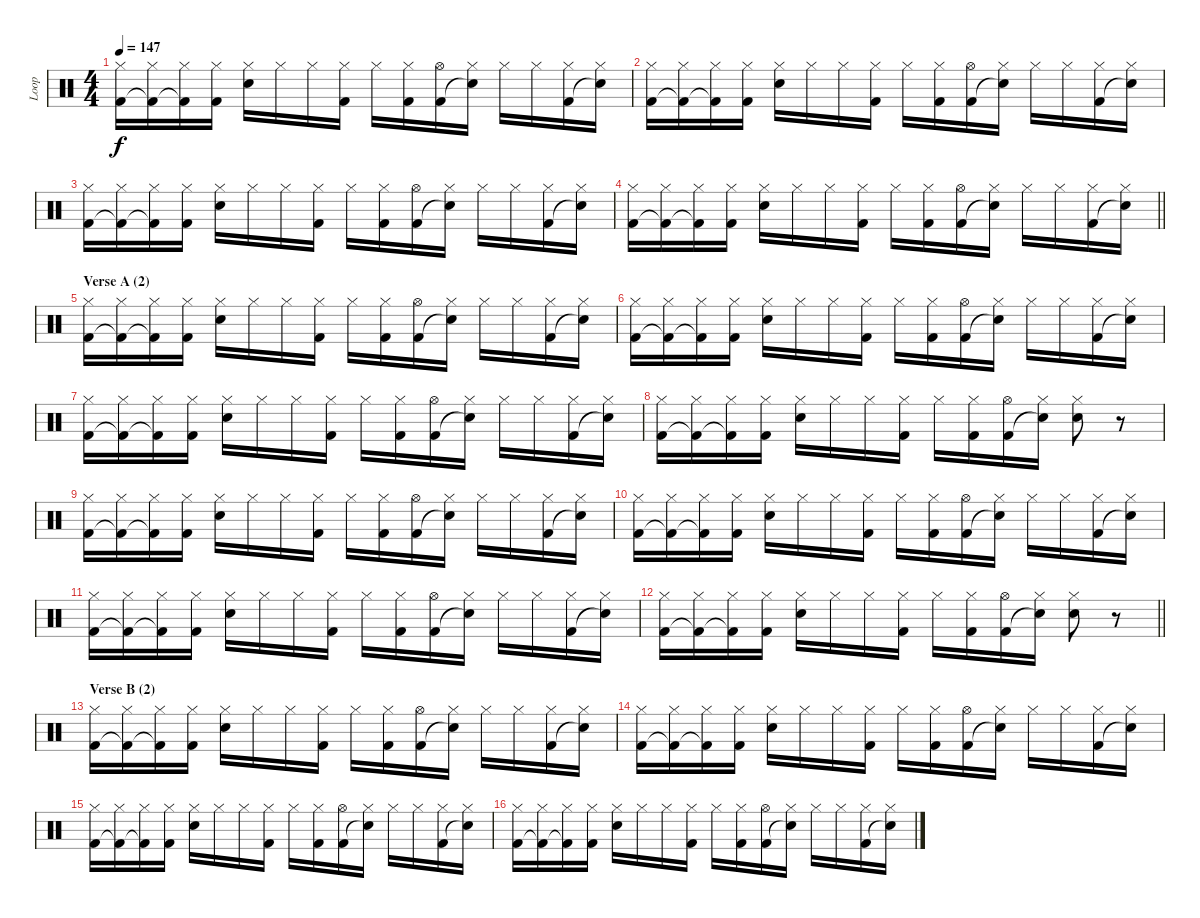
\track ("Loop" "Loop") {instrument percussion}
\staff {score}
\articulation defaults
\ts (4 4)
\tempo 147
\clef neutral
\ks aminor
("Hi-Hat (closed)" "Kick (hit) 2").16{dy f} ("Hi-Hat (closed)" "Kick (hit) 2"{t}).16 ("Hi-Hat (closed)" "Kick (hit) 2"{t}).16 ("Hi-Hat (closed)" "Kick (hit) 2").16 ("Hi-Hat (closed)" "Electric Snare (hit)").16 "Hi-Hat (closed)".16 "Hi-Hat (closed)".16 ("Hi-Hat (closed)" "Kick (hit) 2").16 "Hi-Hat (closed)".16 ("Hi-Hat (closed)" "Kick (hit) 2").16 ("Hi-Hat (open)" "Kick (hit) 2").16 ("Hi-Hat (closed)" "Snare (hit)"{t}).16 "Hi-Hat (closed)".16 "Hi-Hat (closed)".16 ("Hi-Hat (closed)" "Kick (hit) 2").16 ("Hi-Hat (closed)" "Snare (hit)"{t}).16 |
("Hi-Hat (closed)" "Kick (hit) 2").16 ("Hi-Hat (closed)" "Kick (hit) 2"{t}).16 ("Hi-Hat (closed)" "Kick (hit) 2"{t}).16 ("Hi-Hat (closed)" "Kick (hit) 2").16 ("Hi-Hat (closed)" "Electric Snare (hit)").16 "Hi-Hat (closed)".16 "Hi-Hat (closed)".16 ("Hi-Hat (closed)" "Kick (hit) 2").16 "Hi-Hat (closed)".16 ("Hi-Hat (closed)" "Kick (hit) 2").16 ("Hi-Hat (open)" "Kick (hit) 2").16 ("Hi-Hat (closed)" "Snare (hit)"{t}).16 "Hi-Hat (closed)".16 "Hi-Hat (closed)".16 ("Hi-Hat (closed)" "Kick (hit) 2").16 ("Hi-Hat (closed)" "Snare (hit)"{t}).16 |
("Hi-Hat (closed)" "Kick (hit) 2").16 ("Hi-Hat (closed)" "Kick (hit) 2"{t}).16 ("Hi-Hat (closed)" "Kick (hit) 2"{t}).16 ("Hi-Hat (closed)" "Kick (hit) 2").16 ("Hi-Hat (closed)" "Electric Snare (hit)").16 "Hi-Hat (closed)".16 "Hi-Hat (closed)".16 ("Hi-Hat (closed)" "Kick (hit) 2").16 "Hi-Hat (closed)".16 ("Hi-Hat (closed)" "Kick (hit) 2").16 ("Hi-Hat (open)" "Kick (hit) 2").16 ("Hi-Hat (closed)" "Snare (hit)"{t}).16 "Hi-Hat (closed)".16 "Hi-Hat (closed)".16 ("Hi-Hat (closed)" "Kick (hit) 2").16 ("Hi-Hat (closed)" "Snare (hit)"{t}).16 |
\barLineRight lightlight
("Hi-Hat (closed)" "Kick (hit) 2").16 ("Hi-Hat (closed)" "Kick (hit) 2"{t}).16 ("Hi-Hat (closed)" "Kick (hit) 2"{t}).16 ("Hi-Hat (closed)" "Kick (hit) 2").16 ("Hi-Hat (closed)" "Electric Snare (hit)").16 "Hi-Hat (closed)".16 "Hi-Hat (closed)".16 ("Hi-Hat (closed)" "Kick (hit) 2").16 "Hi-Hat (closed)".16 ("Hi-Hat (closed)" "Kick (hit) 2").16 ("Hi-Hat (open)" "Kick (hit) 2").16 ("Hi-Hat (closed)" "Snare (hit)"{t}).16 "Hi-Hat (closed)".16 "Hi-Hat (closed)".16 ("Hi-Hat (closed)" "Kick (hit) 2").16 ("Hi-Hat (closed)" "Snare (hit)"{t}).16 |
\section ("" "Verse A (2)")
("Hi-Hat (closed)" "Kick (hit) 2").16 ("Hi-Hat (closed)" "Kick (hit) 2"{t}).16 ("Hi-Hat (closed)" "Kick (hit) 2"{t}).16 ("Hi-Hat (closed)" "Kick (hit) 2").16 ("Hi-Hat (closed)" "Electric Snare (hit)").16 "Hi-Hat (closed)".16 "Hi-Hat (closed)".16 ("Hi-Hat (closed)" "Kick (hit) 2").16 "Hi-Hat (closed)".16 ("Hi-Hat (closed)" "Kick (hit) 2").16 ("Hi-Hat (open)" "Kick (hit) 2").16 ("Hi-Hat (closed)" "Snare (hit)"{t}).16 "Hi-Hat (closed)".16 "Hi-Hat (closed)".16 ("Hi-Hat (closed)" "Kick (hit) 2").16 ("Hi-Hat (closed)" "Snare (hit)"{t}).16 |
("Hi-Hat (closed)" "Kick (hit) 2").16 ("Hi-Hat (closed)" "Kick (hit) 2"{t}).16 ("Hi-Hat (closed)" "Kick (hit) 2"{t}).16 ("Hi-Hat (closed)" "Kick (hit) 2").16 ("Hi-Hat (closed)" "Electric Snare (hit)").16 "Hi-Hat (closed)".16 "Hi-Hat (closed)".16 ("Hi-Hat (closed)" "Kick (hit) 2").16 "Hi-Hat (closed)".16 ("Hi-Hat (closed)" "Kick (hit) 2").16 ("Hi-Hat (open)" "Kick (hit) 2").16 ("Hi-Hat (closed)" "Snare (hit)"{t}).16 "Hi-Hat (closed)".16 "Hi-Hat (closed)".16 ("Hi-Hat (closed)" "Kick (hit) 2").16 ("Hi-Hat (closed)" "Snare (hit)"{t}).16 |
("Hi-Hat (closed)" "Kick (hit) 2").16 ("Hi-Hat (closed)" "Kick (hit) 2"{t}).16 ("Hi-Hat (closed)" "Kick (hit) 2"{t}).16 ("Hi-Hat (closed)" "Kick (hit) 2").16 ("Hi-Hat (closed)" "Electric Snare (hit)").16 "Hi-Hat (closed)".16 "Hi-Hat (closed)".16 ("Hi-Hat (closed)" "Kick (hit) 2").16 "Hi-Hat (closed)".16 ("Hi-Hat (closed)" "Kick (hit) 2").16 ("Hi-Hat (open)" "Kick (hit) 2").16 ("Hi-Hat (closed)" "Snare (hit)"{t}).16 "Hi-Hat (closed)".16 "Hi-Hat (closed)".16 ("Hi-Hat (closed)" "Kick (hit) 2").16 ("Hi-Hat (closed)" "Snare (hit)"{t}).16 |
("Hi-Hat (closed)" "Kick (hit) 2").16 ("Hi-Hat (closed)" "Kick (hit) 2"{t}).16 ("Hi-Hat (closed)" "Kick (hit) 2"{t}).16 ("Hi-Hat (closed)" "Kick (hit) 2").16 ("Hi-Hat (closed)" "Electric Snare (hit)").16 "Hi-Hat (closed)".16 "Hi-Hat (closed)".16 ("Hi-Hat (closed)" "Kick (hit) 2").16 "Hi-Hat (closed)".16 ("Hi-Hat (closed)" "Kick (hit) 2").16 ("Hi-Hat (open)" "Kick (hit) 2").16 ("Hi-Hat (closed)" "Snare (hit)"{t}).16 ("Hi-Hat (closed)" "Electric Snare (hit)").8 r.8 |
("Hi-Hat (closed)" "Kick (hit) 2").16 ("Hi-Hat (closed)" "Kick (hit) 2"{t}).16 ("Hi-Hat (closed)" "Kick (hit) 2"{t}).16 ("Hi-Hat (closed)" "Kick (hit) 2").16 ("Hi-Hat (closed)" "Electric Snare (hit)").16 "Hi-Hat (closed)".16 "Hi-Hat (closed)".16 ("Hi-Hat (closed)" "Kick (hit) 2").16 "Hi-Hat (closed)".16 ("Hi-Hat (closed)" "Kick (hit) 2").16 ("Hi-Hat (open)" "Kick (hit) 2").16 ("Hi-Hat (closed)" "Snare (hit)"{t}).16 "Hi-Hat (closed)".16 "Hi-Hat (closed)".16 ("Hi-Hat (closed)" "Kick (hit) 2").16 ("Hi-Hat (closed)" "Snare (hit)"{t}).16 |
("Hi-Hat (closed)" "Kick (hit) 2").16 ("Hi-Hat (closed)" "Kick (hit) 2"{t}).16 ("Hi-Hat (closed)" "Kick (hit) 2"{t}).16 ("Hi-Hat (closed)" "Kick (hit) 2").16 ("Hi-Hat (closed)" "Electric Snare (hit)").16 "Hi-Hat (closed)".16 "Hi-Hat (closed)".16 ("Hi-Hat (closed)" "Kick (hit) 2").16 "Hi-Hat (closed)".16 ("Hi-Hat (closed)" "Kick (hit) 2").16 ("Hi-Hat (open)" "Kick (hit) 2").16 ("Hi-Hat (closed)" "Snare (hit)"{t}).16 "Hi-Hat (closed)".16 "Hi-Hat (closed)".16 ("Hi-Hat (closed)" "Kick (hit) 2").16 ("Hi-Hat (closed)" "Snare (hit)"{t}).16 |
("Hi-Hat (closed)" "Kick (hit) 2").16 ("Hi-Hat (closed)" "Kick (hit) 2"{t}).16 ("Hi-Hat (closed)" "Kick (hit) 2"{t}).16 ("Hi-Hat (closed)" "Kick (hit) 2").16 ("Hi-Hat (closed)" "Electric Snare (hit)").16 "Hi-Hat (closed)".16 "Hi-Hat (closed)".16 ("Hi-Hat (closed)" "Kick (hit) 2").16 "Hi-Hat (closed)".16 ("Hi-Hat (closed)" "Kick (hit) 2").16 ("Hi-Hat (open)" "Kick (hit) 2").16 ("Hi-Hat (closed)" "Snare (hit)"{t}).16 "Hi-Hat (closed)".16 "Hi-Hat (closed)".16 ("Hi-Hat (closed)" "Kick (hit) 2").16 ("Hi-Hat (closed)" "Snare (hit)"{t}).16 |
\barLineRight lightlight
("Hi-Hat (closed)" "Kick (hit) 2").16 ("Hi-Hat (closed)" "Kick (hit) 2"{t}).16 ("Hi-Hat (closed)" "Kick (hit) 2"{t}).16 ("Hi-Hat (closed)" "Kick (hit) 2").16 ("Hi-Hat (closed)" "Electric Snare (hit)").16 "Hi-Hat (closed)".16 "Hi-Hat (closed)".16 ("Hi-Hat (closed)" "Kick (hit) 2").16 "Hi-Hat (closed)".16 ("Hi-Hat (closed)" "Kick (hit) 2").16 ("Hi-Hat (open)" "Kick (hit) 2").16 ("Hi-Hat (closed)" "Snare (hit)"{t}).16 ("Hi-Hat (closed)" "Electric Snare (hit)").8 r.8 |
\section ("" "Verse B (2)")
("Hi-Hat (closed)" "Kick (hit) 2").16 ("Hi-Hat (closed)" "Kick (hit) 2"{t}).16 ("Hi-Hat (closed)" "Kick (hit) 2"{t}).16 ("Hi-Hat (closed)" "Kick (hit) 2").16 ("Hi-Hat (closed)" "Electric Snare (hit)").16 "Hi-Hat (closed)".16 "Hi-Hat (closed)".16 ("Hi-Hat (closed)" "Kick (hit) 2").16 "Hi-Hat (closed)".16 ("Hi-Hat (closed)" "Kick (hit) 2").16 ("Hi-Hat (open)" "Kick (hit) 2").16 ("Hi-Hat (closed)" "Snare (hit)"{t}).16 "Hi-Hat (closed)".16 "Hi-Hat (closed)".16 ("Hi-Hat (closed)" "Kick (hit) 2").16 ("Hi-Hat (closed)" "Snare (hit)"{t}).16 |
("Hi-Hat (closed)" "Kick (hit) 2").16 ("Hi-Hat (closed)" "Kick (hit) 2"{t}).16 ("Hi-Hat (closed)" "Kick (hit) 2"{t}).16 ("Hi-Hat (closed)" "Kick (hit) 2").16 ("Hi-Hat (closed)" "Electric Snare (hit)").16 "Hi-Hat (closed)".16 "Hi-Hat (closed)".16 ("Hi-Hat (closed)" "Kick (hit) 2").16 "Hi-Hat (closed)".16 ("Hi-Hat (closed)" "Kick (hit) 2").16 ("Hi-Hat (open)" "Kick (hit) 2").16 ("Hi-Hat (closed)" "Snare (hit)"{t}).16 "Hi-Hat (closed)".16 "Hi-Hat (closed)".16 ("Hi-Hat (closed)" "Kick (hit) 2").16 ("Hi-Hat (closed)" "Snare (hit)"{t}).16 |
("Hi-Hat (closed)" "Kick (hit) 2").16 ("Hi-Hat (closed)" "Kick (hit) 2"{t}).16 ("Hi-Hat (closed)" "Kick (hit) 2"{t}).16 ("Hi-Hat (closed)" "Kick (hit) 2").16 ("Hi-Hat (closed)" "Electric Snare (hit)").16 "Hi-Hat (closed)".16 "Hi-Hat (closed)".16 ("Hi-Hat (closed)" "Kick (hit) 2").16 "Hi-Hat (closed)".16 ("Hi-Hat (closed)" "Kick (hit) 2").16 ("Hi-Hat (open)" "Kick (hit) 2").16 ("Hi-Hat (closed)" "Snare (hit)"{t}).16 "Hi-Hat (closed)".16 "Hi-Hat (closed)".16 ("Hi-Hat (closed)" "Kick (hit) 2").16 ("Hi-Hat (closed)" "Snare (hit)"{t}).16 |
("Hi-Hat (closed)" "Kick (hit) 2").16 ("Hi-Hat (closed)" "Kick (hit) 2"{t}).16 ("Hi-Hat (closed)" "Kick (hit) 2"{t}).16 ("Hi-Hat (closed)" "Kick (hit) 2").16 ("Hi-Hat (closed)" "Electric Snare (hit)").16 "Hi-Hat (closed)".16 "Hi-Hat (closed)".16 ("Hi-Hat (closed)" "Kick (hit) 2").16 "Hi-Hat (closed)".16 ("Hi-Hat (closed)" "Kick (hit) 2").16 ("Hi-Hat (open)" "Kick (hit) 2").16 ("Hi-Hat (closed)" "Snare (hit)"{t}).16 "Hi-Hat (closed)".16 "Hi-Hat (closed)".16 ("Hi-Hat (closed)" "Kick (hit) 2").16 ("Hi-Hat (closed)" "Snare (hit)"{t}).16
